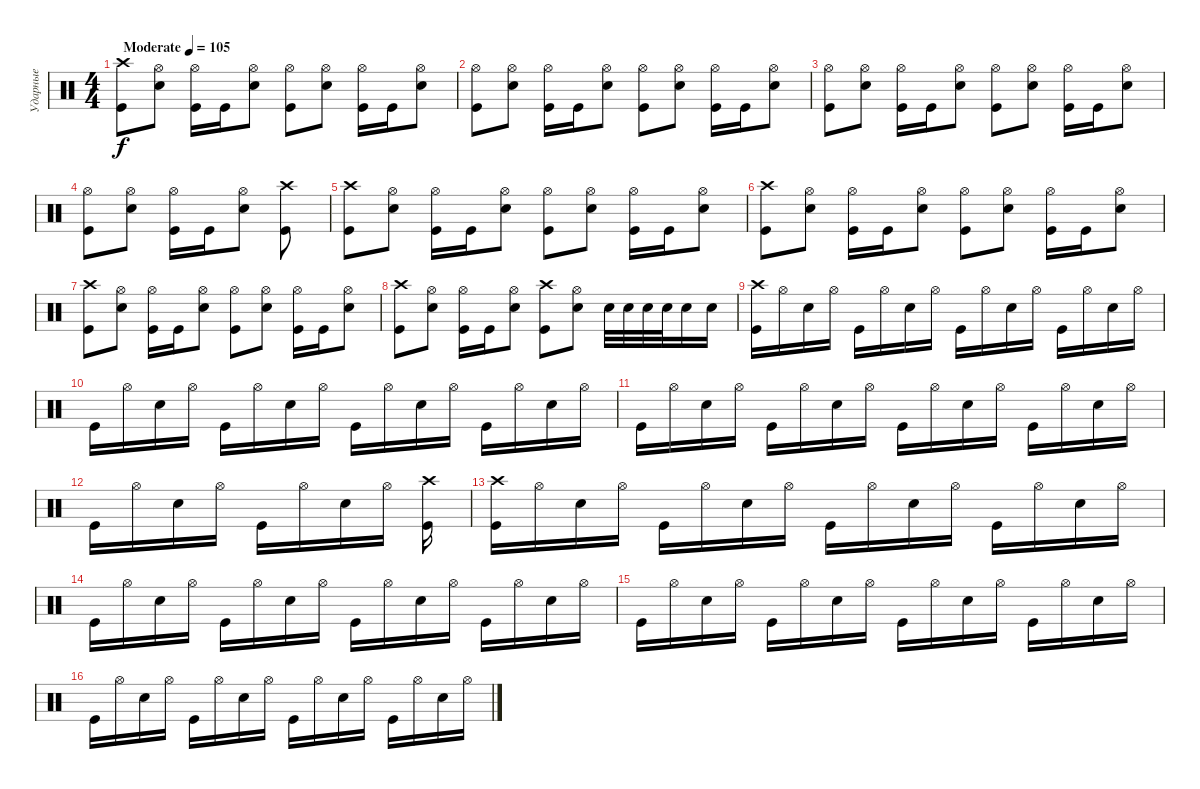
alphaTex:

\track ("Ударные" "Ударные") {instrument percussion}
\staff {score}
\articulation defaults
\ts (4 4)
\tempo (105 "Moderate")
\clef neutral
\ks c
("Kick (hit)" "Crash high (hit)").8{dy f} ("Snare (hit) 2" "Hi-Hat (open)").8 ("Kick (hit)" "Hi-Hat (open)").16 "Kick (hit)".16 ("Snare (hit) 2" "Hi-Hat (open)").8 ("Kick (hit)" "Hi-Hat (open)").8 ("Snare (hit) 2" "Hi-Hat (open)").8 ("Kick (hit)" "Hi-Hat (open)").16 "Kick (hit)".16 ("Snare (hit) 2" "Hi-Hat (open)").8 |
("Kick (hit)" "Hi-Hat (open)").8 ("Snare (hit) 2" "Hi-Hat (open)").8 ("Kick (hit)" "Hi-Hat (open)").16 "Kick (hit)".16 ("Snare (hit) 2" "Hi-Hat (open)").8 ("Kick (hit)" "Hi-Hat (open)").8 ("Snare (hit) 2" "Hi-Hat (open)").8 ("Kick (hit)" "Hi-Hat (open)").16 "Kick (hit)".16 ("Snare (hit) 2" "Hi-Hat (open)").8 |
("Kick (hit)" "Hi-Hat (open)").8 ("Snare (hit) 2" "Hi-Hat (open)").8 ("Kick (hit)" "Hi-Hat (open)").16 "Kick (hit)".16 ("Snare (hit) 2" "Hi-Hat (open)").8 ("Kick (hit)" "Hi-Hat (open)").8 ("Snare (hit) 2" "Hi-Hat (open)").8 ("Kick (hit)" "Hi-Hat (open)").16 "Kick (hit)".16 ("Snare (hit) 2" "Hi-Hat (open)").8 |
("Kick (hit)" "Hi-Hat (open)").8 ("Snare (hit) 2" "Hi-Hat (open)").8 ("Kick (hit)" "Hi-Hat (open)").16 "Kick (hit)".16 ("Snare (hit) 2" "Hi-Hat (open)").8 ("Kick (hit)" "Crash high (hit)").8 |
("Kick (hit)" "Crash high (hit)").8 ("Snare (hit) 2" "Hi-Hat (open)").8 ("Kick (hit)" "Hi-Hat (open)").16 "Kick (hit)".16 ("Snare (hit) 2" "Hi-Hat (open)").8 ("Kick (hit)" "Hi-Hat (open)").8 ("Snare (hit) 2" "Hi-Hat (open)").8 ("Kick (hit)" "Hi-Hat (open)").16 "Kick (hit)".16 ("Snare (hit) 2" "Hi-Hat (open)").8 |
("Kick (hit)" "Crash high (hit)").8 ("Snare (hit) 2" "Hi-Hat (open)").8 ("Kick (hit)" "Hi-Hat (open)").16 "Kick (hit)".16 ("Snare (hit) 2" "Hi-Hat (open)").8 ("Kick (hit)" "Hi-Hat (open)").8 ("Snare (hit) 2" "Hi-Hat (open)").8 ("Kick (hit)" "Hi-Hat (open)").16 "Kick (hit)".16 ("Snare (hit) 2" "Hi-Hat (open)").8 |
("Kick (hit)" "Crash high (hit)").8 ("Snare (hit) 2" "Hi-Hat (open)").8 ("Kick (hit)" "Hi-Hat (open)").16 "Kick (hit)".16 ("Snare (hit) 2" "Hi-Hat (open)").8 ("Kick (hit)" "Hi-Hat (open)").8 ("Snare (hit) 2" "Hi-Hat (open)").8 ("Kick (hit)" "Hi-Hat (open)").16 "Kick (hit)".16 ("Snare (hit) 2" "Hi-Hat (open)").8 |
("Kick (hit)" "Crash high (hit)").8 ("Snare (hit) 2" "Hi-Hat (open)").8 ("Kick (hit)" "Hi-Hat (open)").16 "Kick (hit)".16 ("Snare (hit) 2" "Hi-Hat (open)").8 ("Kick (hit)" "Crash high (hit)").8 ("Snare (hit) 2" "Hi-Hat (open)").8 "Snare (hit) 2".32 "Snare (hit) 2".32 "Snare (hit) 2".32 "Snare (hit) 2".32 "Snare (hit) 2".16 "Snare (hit) 2".16 |
("Kick (hit)" "Crash high (hit)").16 "Hi-Hat (open)".16 "Snare (hit) 2".16 "Hi-Hat (open)".16 "Kick (hit)".16 "Hi-Hat (open)".16 "Snare (hit) 2".16 "Hi-Hat (open)".16 "Kick (hit)".16 "Hi-Hat (open)".16 "Snare (hit) 2".16 "Hi-Hat (open)".16 "Kick (hit)".16 "Hi-Hat (open)".16 "Snare (hit) 2".16 "Hi-Hat (open)".16 |
"Kick (hit)".16 "Hi-Hat (open)".16 "Snare (hit) 2".16 "Hi-Hat (open)".16 "Kick (hit)".16 "Hi-Hat (open)".16 "Snare (hit) 2".16 "Hi-Hat (open)".16 "Kick (hit)".16 "Hi-Hat (open)".16 "Snare (hit) 2".16 "Hi-Hat (open)".16 "Kick (hit)".16 "Hi-Hat (open)".16 "Snare (hit) 2".16 "Hi-Hat (open)".16 |
"Kick (hit)".16 "Hi-Hat (open)".16 "Snare (hit) 2".16 "Hi-Hat (open)".16 "Kick (hit)".16 "Hi-Hat (open)".16 "Snare (hit) 2".16 "Hi-Hat (open)".16 "Kick (hit)".16 "Hi-Hat (open)".16 "Snare (hit) 2".16 "Hi-Hat (open)".16 "Kick (hit)".16 "Hi-Hat (open)".16 "Snare (hit) 2".16 "Hi-Hat (open)".16 |
"Kick (hit)".16 "Hi-Hat (open)".16 "Snare (hit) 2".16 "Hi-Hat (open)".16 "Kick (hit)".16 "Hi-Hat (open)".16 "Snare (hit) 2".16 "Hi-Hat (open)".16 ("Kick (hit)" "Crash high (hit)").16 |
("Kick (hit)" "Crash high (hit)").16 "Hi-Hat (open)".16 "Snare (hit) 2".16 "Hi-Hat (open)".16 "Kick (hit)".16 "Hi-Hat (open)".16 "Snare (hit) 2".16 "Hi-Hat (open)".16 "Kick (hit)".16 "Hi-Hat (open)".16 "Snare (hit) 2".16 "Hi-Hat (open)".16 "Kick (hit)".16 "Hi-Hat (open)".16 "Snare (hit) 2".16 "Hi-Hat (open)".16 |
"Kick (hit)".16 "Hi-Hat (open)".16 "Snare (hit) 2".16 "Hi-Hat (open)".16 "Kick (hit)".16 "Hi-Hat (open)".16 "Snare (hit) 2".16 "Hi-Hat (open)".16 "Kick (hit)".16 "Hi-Hat (open)".16 "Snare (hit) 2".16 "Hi-Hat (open)".16 "Kick (hit)".16 "Hi-Hat (open)".16 "Snare (hit) 2".16 "Hi-Hat (open)".16 |
"Kick (hit)".16 "Hi-Hat (open)".16 "Snare (hit) 2".16 "Hi-Hat (open)".16 "Kick (hit)".16 "Hi-Hat (open)".16 "Snare (hit) 2".16 "Hi-Hat (open)".16 "Kick (hit)".16 "Hi-Hat (open)".16 "Snare (hit) 2".16 "Hi-Hat (open)".16 "Kick (hit)".16 "Hi-Hat (open)".16 "Snare (hit) 2".16 "Hi-Hat (open)".16 |
"Kick (hit)".16 "Hi-Hat (open)".16 "Snare (hit) 2".16 "Hi-Hat (open)".16 "Kick (hit)".16 "Hi-Hat (open)".16 "Snare (hit) 2".16 "Hi-Hat (open)".16 "Kick (hit)".16 "Hi-Hat (open)".16 "Snare (hit) 2".16 "Hi-Hat (open)".16 "Kick (hit)".16 "Hi-Hat (open)".16 "Snare (hit) 2".16 "Hi-Hat (open)".16
